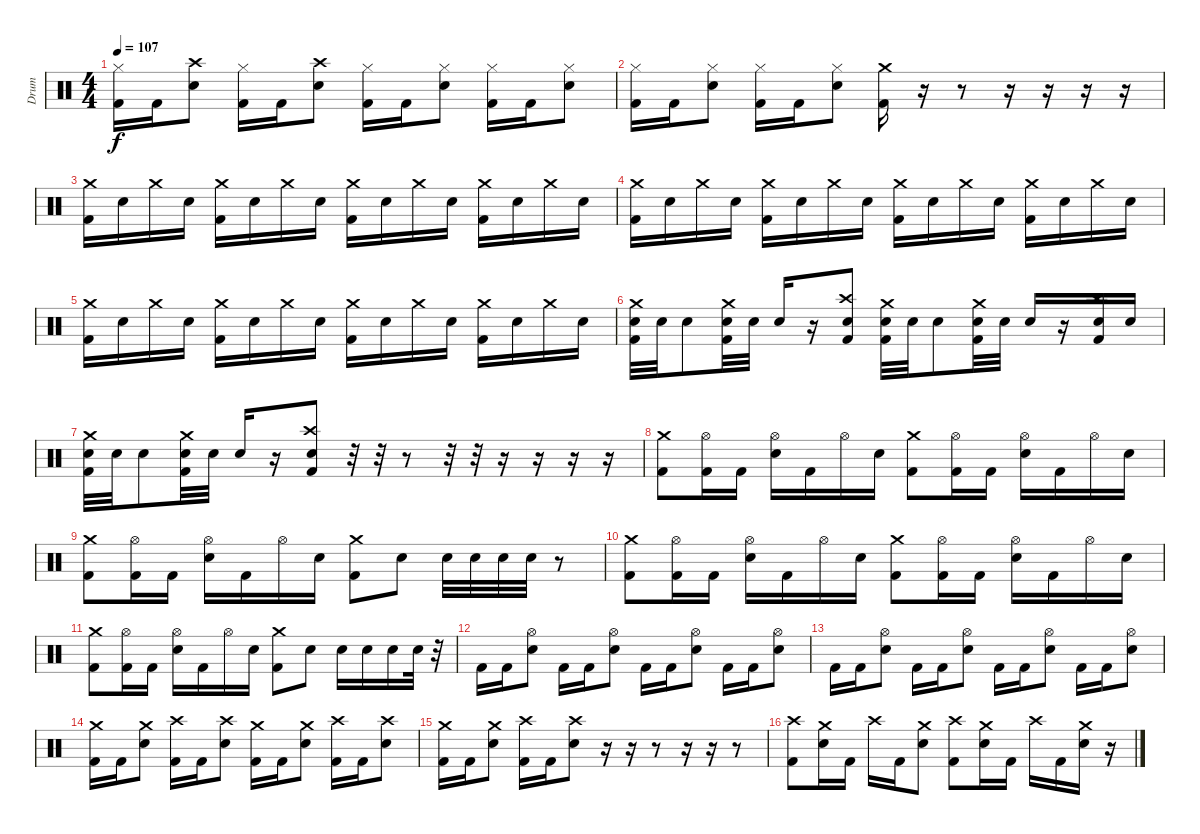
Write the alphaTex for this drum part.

\track ("Drum" "Drum") {instrument percussion}
\staff {score}
\articulation defaults
\ts (4 4)
\tempo 107
\clef neutral
\ks c
("Hi-Hat (closed)" "Kick (hit) 2").16{dy f} "Kick (hit) 2".16 ("Crash high (hit)" "Snare (hit) 2").8 ("Hi-Hat (closed)" "Kick (hit) 2").16 "Kick (hit) 2".16 ("Crash high (hit)" "Snare (hit) 2").8 ("Hi-Hat (closed)" "Kick (hit) 2").16 "Kick (hit) 2".16 ("Hi-Hat (closed)" "Snare (hit) 2").8 ("Hi-Hat (closed)" "Kick (hit) 2").16 "Kick (hit) 2".16 ("Hi-Hat (closed)" "Snare (hit) 2").8 |
("Hi-Hat (closed)" "Kick (hit) 2").16 "Kick (hit) 2".16 ("Hi-Hat (closed)" "Snare (hit) 2").8 ("Hi-Hat (closed)" "Kick (hit) 2").16 "Kick (hit) 2".16 ("Hi-Hat (closed)" "Snare (hit) 2").8 ("Crash medium (hit)" "Kick (hit) 2").16 r.16 r.8 r.16 r.16 r.16 r.16 |
("Crash medium (hit)" "Kick (hit) 2").16 "Snare (hit) 2".16 "Crash medium (hit)".16 "Snare (hit) 2".16 ("Crash medium (hit)" "Kick (hit) 2").16 "Snare (hit) 2".16 "Crash medium (hit)".16 "Snare (hit) 2".16 ("Crash medium (hit)" "Kick (hit) 2").16 "Snare (hit) 2".16 "Crash medium (hit)".16 "Snare (hit) 2".16 ("Crash medium (hit)" "Kick (hit) 2").16 "Snare (hit) 2".16 "Crash medium (hit)".16 "Snare (hit) 2".16 |
("Crash medium (hit)" "Kick (hit) 2").16 "Snare (hit) 2".16 "Crash medium (hit)".16 "Snare (hit) 2".16 ("Crash medium (hit)" "Kick (hit) 2").16 "Snare (hit) 2".16 "Crash medium (hit)".16 "Snare (hit) 2".16 ("Crash medium (hit)" "Kick (hit) 2").16 "Snare (hit) 2".16 "Crash medium (hit)".16 "Snare (hit) 2".16 ("Crash medium (hit)" "Kick (hit) 2").16 "Snare (hit) 2".16 "Crash medium (hit)".16 "Snare (hit) 2".16 |
("Crash medium (hit)" "Kick (hit) 2").16 "Snare (hit) 2".16 "Crash medium (hit)".16 "Snare (hit) 2".16 ("Crash medium (hit)" "Kick (hit) 2").16 "Snare (hit) 2".16 "Crash medium (hit)".16 "Snare (hit) 2".16 ("Crash medium (hit)" "Kick (hit) 2").16 "Snare (hit) 2".16 "Crash medium (hit)".16 "Snare (hit) 2".16 ("Crash medium (hit)" "Kick (hit) 2").16 "Snare (hit) 2".16 "Crash medium (hit)".16 "Snare (hit) 2".16 |
("Crash medium (hit)" "Snare (hit) 2" "Kick (hit) 2").32 "Snare (hit) 2".32 "Snare (hit) 2".8 ("Crash medium (hit)" "Snare (hit) 2" "Kick (hit) 2").32 "Snare (hit) 2".32 "Snare (hit) 2".16 r.16 ("Crash high (hit)" "Snare (hit) 2" "Kick (hit) 2").8 ("Crash medium (hit)" "Snare (hit) 2" "Kick (hit) 2").32 "Snare (hit) 2".32 "Snare (hit) 2".8 ("Crash medium (hit)" "Snare (hit) 2" "Kick (hit) 2").32 "Snare (hit) 2".32 "Snare (hit) 2".16 r.16 ("Crash high (hit)" "Snare (hit) 2" "Kick (hit) 2").16 "Snare (hit) 2".16 |
("Crash medium (hit)" "Snare (hit) 2" "Kick (hit) 2").32 "Snare (hit) 2".32 "Snare (hit) 2".8 ("Crash medium (hit)" "Snare (hit) 2" "Kick (hit) 2").32 "Snare (hit) 2".32 "Snare (hit) 2".16 r.16 ("Crash high (hit)" "Snare (hit) 2" "Kick (hit) 2").8 r.32 r.32 r.8 r.32 r.32 r.16 r.16 r.16 r.16 |
("Crash medium (hit)" "Kick (hit) 2").8 ("Hi-Hat (open)" "Kick (hit) 2").16 "Kick (hit) 2".16 ("Hi-Hat (open)" "Snare (hit) 2").16 "Kick (hit) 2".16 "Hi-Hat (open)".16 "Snare (hit) 2".16 ("Crash medium (hit)" "Kick (hit) 2").8 ("Hi-Hat (open)" "Kick (hit) 2").16 "Kick (hit) 2".16 ("Hi-Hat (open)" "Snare (hit) 2").16 "Kick (hit) 2".16 "Hi-Hat (open)".16 "Snare (hit) 2".16 |
("Crash medium (hit)" "Kick (hit) 2").8 ("Hi-Hat (open)" "Kick (hit) 2").16 "Kick (hit) 2".16 ("Hi-Hat (open)" "Snare (hit) 2").16 "Kick (hit) 2".16 "Hi-Hat (open)".16 "Snare (hit) 2".16 ("Crash medium (hit)" "Kick (hit) 2").8 "Snare (hit) 2".8 "Snare (hit) 2".32 "Snare (hit) 2".32 "Snare (hit) 2".32 "Snare (hit) 2".32 r.8 |
("Crash medium (hit)" "Kick (hit) 2").8 ("Hi-Hat (open)" "Kick (hit) 2").16 "Kick (hit) 2".16 ("Hi-Hat (open)" "Snare (hit) 2").16 "Kick (hit) 2".16 "Hi-Hat (open)".16 "Snare (hit) 2".16 ("Crash medium (hit)" "Kick (hit) 2").8 ("Hi-Hat (open)" "Kick (hit) 2").16 "Kick (hit) 2".16 ("Hi-Hat (open)" "Snare (hit) 2").16 "Kick (hit) 2".16 "Hi-Hat (open)".16 "Snare (hit) 2".16 |
("Crash medium (hit)" "Kick (hit) 2").8 ("Hi-Hat (open)" "Kick (hit) 2").16 "Kick (hit) 2".16 ("Hi-Hat (open)" "Snare (hit) 2").16 "Kick (hit) 2".16 "Hi-Hat (open)".16 "Snare (hit) 2".16 ("Crash medium (hit)" "Kick (hit) 2").8 "Snare (hit) 2".8 "Snare (hit) 2".16 "Snare (hit) 2".16 "Snare (hit) 2".16 "Snare (hit) 2".32 r.32 |
"Kick (hit) 2".16 "Kick (hit) 2".16 ("Hi-Hat (open)" "Snare (hit) 2").8 "Kick (hit) 2".16 "Kick (hit) 2".16 ("Hi-Hat (open)" "Snare (hit) 2").8 "Kick (hit) 2".16 "Kick (hit) 2".16 ("Hi-Hat (open)" "Snare (hit) 2").8 "Kick (hit) 2".16 "Kick (hit) 2".16 ("Hi-Hat (open)" "Snare (hit) 2").8 |
"Kick (hit) 2".16 "Kick (hit) 2".16 ("Hi-Hat (open)" "Snare (hit) 2").8 "Kick (hit) 2".16 "Kick (hit) 2".16 ("Hi-Hat (open)" "Snare (hit) 2").8 "Kick (hit) 2".16 "Kick (hit) 2".16 ("Hi-Hat (open)" "Snare (hit) 2").8 "Kick (hit) 2".16 "Kick (hit) 2".16 ("Hi-Hat (open)" "Snare (hit) 2").8 |
("Crash medium (hit)" "Kick (hit) 2").16 "Kick (hit) 2".16 ("Crash medium (hit)" "Snare (hit) 2").8 ("Crash high (hit)" "Kick (hit) 2").16 "Kick (hit) 2".16 ("Crash high (hit)" "Snare (hit) 2").8 ("Crash medium (hit)" "Kick (hit) 2").16 "Kick (hit) 2".16 ("Crash medium (hit)" "Snare (hit) 2").8 ("Crash high (hit)" "Kick (hit) 2").16 "Kick (hit) 2".16 ("Crash high (hit)" "Snare (hit) 2").8 |
("Crash medium (hit)" "Kick (hit) 2").16 "Kick (hit) 2".16 ("Crash medium (hit)" "Snare (hit) 2").8 ("Crash high (hit)" "Kick (hit) 2").16 "Kick (hit) 2".16 ("Crash high (hit)" "Snare (hit) 2").8 r.16 r.16 r.8 r.16 r.16 r.8 |
("Crash high (hit)" "Kick (hit) 2").8 ("Crash medium (hit)" "Snare (hit) 2").16 "Kick (hit) 2".16 "Crash high (hit)".16 "Kick (hit) 2".16 ("Crash medium (hit)" "Snare (hit) 2").8 ("Crash high (hit)" "Kick (hit) 2").8 ("Crash medium (hit)" "Snare (hit) 2").16 "Kick (hit) 2".16 "Crash high (hit)".16 "Kick (hit) 2".16 ("Crash medium (hit)" "Snare (hit) 2").16 r.16
